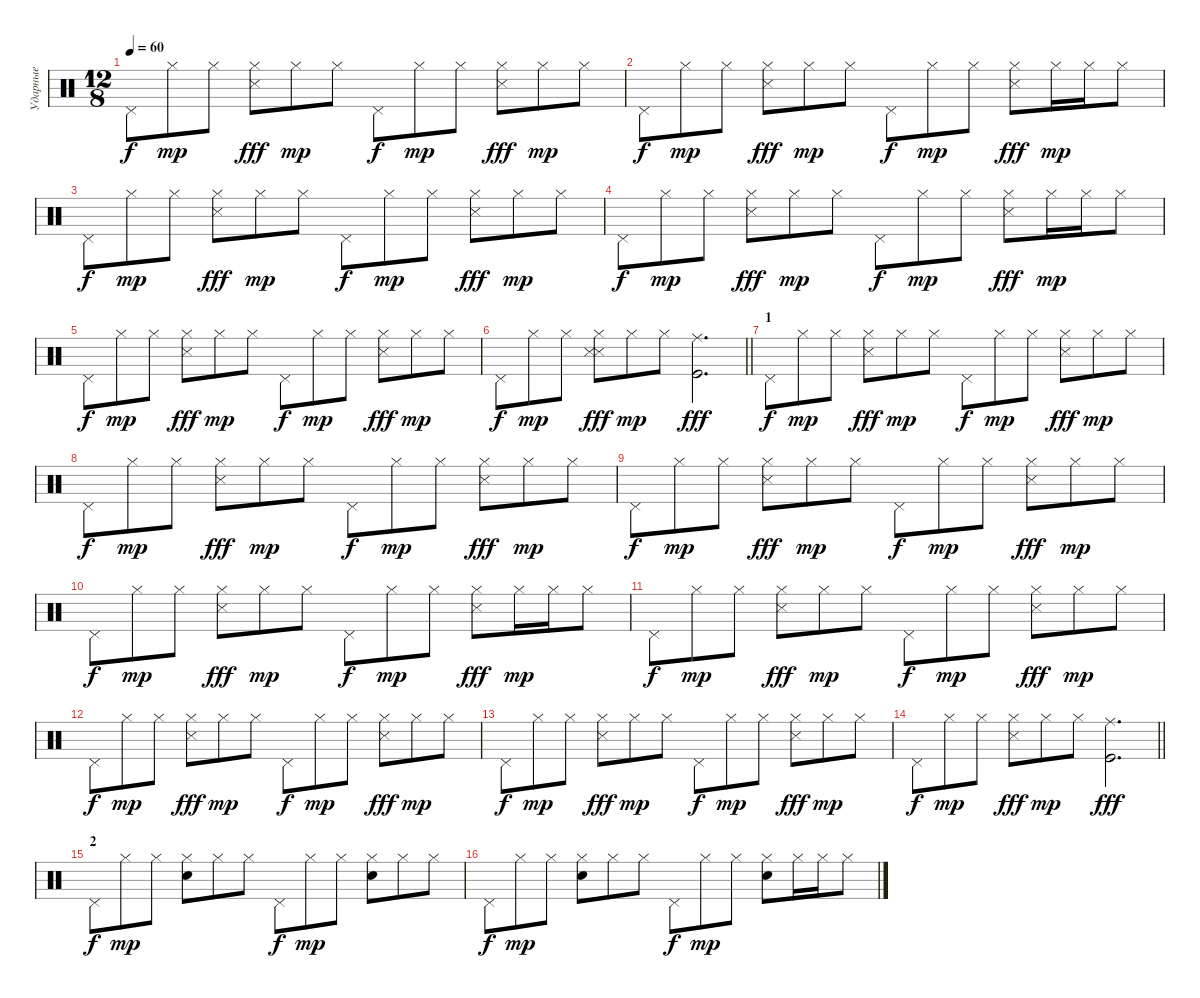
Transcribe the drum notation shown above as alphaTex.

\track ("Ударные" "Ударные") {instrument percussion}
\staff {score}
\articulation defaults
\ts (12 8)
\tempo 60
\clef neutral
\ks c "Pedal Hi-Hat (hit)".8{dy f} "Hi-Hat (closed)".8{dy mp} "Hi-Hat (closed)".8
("Hi-Hat (closed)" "Snare (side stick) 3").8{dy fff} "Hi-Hat (closed)".8{dy mp} "Hi-Hat (closed)".8 "Pedal Hi-Hat (hit)".8{dy f} "Hi-Hat (closed)".8{dy mp} "Hi-Hat (closed)".8 ("Hi-Hat (closed)" "Snare (side stick) 3").8{dy fff} "Hi-Hat (closed)".8{dy mp} "Hi-Hat (closed)".8 |
"Pedal Hi-Hat (hit)".8{dy f} "Hi-Hat (closed)".8{dy mp} "Hi-Hat (closed)".8 ("Hi-Hat (closed)" "Snare (side stick) 3").8{dy fff} "Hi-Hat (closed)".8{dy mp} "Hi-Hat (closed)".8 "Pedal Hi-Hat (hit)".8{dy f} "Hi-Hat (closed)".8{dy mp} "Hi-Hat (closed)".8 ("Hi-Hat (closed)" "Snare (side stick) 3").8{dy fff} "Hi-Hat (closed)".16{dy mp} "Hi-Hat (closed)".16 "Hi-Hat (closed)".8 |
"Pedal Hi-Hat (hit)".8{dy f} "Hi-Hat (closed)".8{dy mp} "Hi-Hat (closed)".8 ("Hi-Hat (closed)" "Snare (side stick) 3").8{dy fff} "Hi-Hat (closed)".8{dy mp} "Hi-Hat (closed)".8 "Pedal Hi-Hat (hit)".8{dy f} "Hi-Hat (closed)".8{dy mp} "Hi-Hat (closed)".8 ("Hi-Hat (closed)" "Snare (side stick) 3").8{dy fff} "Hi-Hat (closed)".8{dy mp} "Hi-Hat (closed)".8 |
"Pedal Hi-Hat (hit)".8{dy f} "Hi-Hat (closed)".8{dy mp} "Hi-Hat (closed)".8 ("Hi-Hat (closed)" "Snare (side stick) 3").8{dy fff} "Hi-Hat (closed)".8{dy mp} "Hi-Hat (closed)".8 "Pedal Hi-Hat (hit)".8{dy f} "Hi-Hat (closed)".8{dy mp} "Hi-Hat (closed)".8 ("Hi-Hat (closed)" "Snare (side stick) 3").8{dy fff} "Hi-Hat (closed)".16{dy mp} "Hi-Hat (closed)".16 "Hi-Hat (closed)".8 |
"Pedal Hi-Hat (hit)".8{dy f} "Hi-Hat (closed)".8{dy mp} "Hi-Hat (closed)".8 ("Hi-Hat (closed)" "Snare (side stick) 3").8{dy fff} "Hi-Hat (closed)".8{dy mp} "Hi-Hat (closed)".8 "Pedal Hi-Hat (hit)".8{dy f} "Hi-Hat (closed)".8{dy mp} "Hi-Hat (closed)".8 ("Hi-Hat (closed)" "Snare (side stick) 3").8{dy fff} "Hi-Hat (closed)".8{dy mp} "Hi-Hat (closed)".8 |
\barLineRight lightlight "Pedal Hi-Hat (hit)".8{dy f} "Hi-Hat (closed)".8{dy mp} "Hi-Hat (closed)".8
("Hi-Hat (closed)" "Snare (side stick) 3" "Metronome (hit)").8{dy fff} "Hi-Hat (closed)".8{dy mp} "Hi-Hat (closed)".8 ("Ride (middle)" "Kick (hit)").2{d dy fff} |
\section ("" "1")
"Pedal Hi-Hat (hit)".8{dy f} "Hi-Hat (closed)".8{dy mp} "Hi-Hat (closed)".8 ("Hi-Hat (closed)" "Snare (side stick) 3").8{dy fff} "Hi-Hat (closed)".8{dy mp} "Hi-Hat (closed)".8 "Pedal Hi-Hat (hit)".8{dy f} "Hi-Hat (closed)".8{dy mp} "Hi-Hat (closed)".8 ("Hi-Hat (closed)" "Snare (side stick) 3").8{dy fff} "Hi-Hat (closed)".8{dy mp} "Hi-Hat (closed)".8 |
"Pedal Hi-Hat (hit)".8{dy f} "Hi-Hat (closed)".8{dy mp} "Hi-Hat (closed)".8 ("Hi-Hat (closed)" "Snare (side stick) 3").8{dy fff} "Hi-Hat (closed)".8{dy mp} "Hi-Hat (closed)".8 "Pedal Hi-Hat (hit)".8{dy f} "Hi-Hat (closed)".8{dy mp} "Hi-Hat (closed)".8 ("Hi-Hat (closed)" "Snare (side stick) 3").8{dy fff} "Hi-Hat (closed)".8{dy mp} "Hi-Hat (closed)".8 |
"Pedal Hi-Hat (hit)".8{dy f} "Hi-Hat (closed)".8{dy mp} "Hi-Hat (closed)".8 ("Hi-Hat (closed)" "Snare (side stick) 3").8{dy fff} "Hi-Hat (closed)".8{dy mp} "Hi-Hat (closed)".8 "Pedal Hi-Hat (hit)".8{dy f} "Hi-Hat (closed)".8{dy mp} "Hi-Hat (closed)".8 ("Hi-Hat (closed)" "Snare (side stick) 3").8{dy fff} "Hi-Hat (closed)".8{dy mp} "Hi-Hat (closed)".8 |
"Pedal Hi-Hat (hit)".8{dy f} "Hi-Hat (closed)".8{dy mp} "Hi-Hat (closed)".8 ("Hi-Hat (closed)" "Snare (side stick) 3").8{dy fff} "Hi-Hat (closed)".8{dy mp} "Hi-Hat (closed)".8 "Pedal Hi-Hat (hit)".8{dy f} "Hi-Hat (closed)".8{dy mp} "Hi-Hat (closed)".8 ("Hi-Hat (closed)" "Snare (side stick) 3").8{dy fff} "Hi-Hat (closed)".16{dy mp} "Hi-Hat (closed)".16 "Hi-Hat (closed)".8 |
"Pedal Hi-Hat (hit)".8{dy f} "Hi-Hat (closed)".8{dy mp} "Hi-Hat (closed)".8 ("Hi-Hat (closed)" "Snare (side stick) 3").8{dy fff} "Hi-Hat (closed)".8{dy mp} "Hi-Hat (closed)".8 "Pedal Hi-Hat (hit)".8{dy f} "Hi-Hat (closed)".8{dy mp} "Hi-Hat (closed)".8 ("Hi-Hat (closed)" "Snare (side stick) 3").8{dy fff} "Hi-Hat (closed)".8{dy mp} "Hi-Hat (closed)".8 |
"Pedal Hi-Hat (hit)".8{dy f} "Hi-Hat (closed)".8{dy mp} "Hi-Hat (closed)".8 ("Hi-Hat (closed)" "Snare (side stick) 3").8{dy fff} "Hi-Hat (closed)".8{dy mp} "Hi-Hat (closed)".8 "Pedal Hi-Hat (hit)".8{dy f} "Hi-Hat (closed)".8{dy mp} "Hi-Hat (closed)".8 ("Hi-Hat (closed)" "Snare (side stick) 3").8{dy fff} "Hi-Hat (closed)".8{dy mp} "Hi-Hat (closed)".8 |
"Pedal Hi-Hat (hit)".8{dy f} "Hi-Hat (closed)".8{dy mp} "Hi-Hat (closed)".8 ("Hi-Hat (closed)" "Snare (side stick) 3").8{dy fff} "Hi-Hat (closed)".8{dy mp} "Hi-Hat (closed)".8 "Pedal Hi-Hat (hit)".8{dy f} "Hi-Hat (closed)".8{dy mp} "Hi-Hat (closed)".8 ("Hi-Hat (closed)" "Snare (side stick) 3").8{dy fff} "Hi-Hat (closed)".8{dy mp} "Hi-Hat (closed)".8 |
\barLineRight lightlight "Pedal Hi-Hat (hit)".8{dy f} "Hi-Hat (closed)".8{dy mp} "Hi-Hat (closed)".8
("Hi-Hat (closed)" "Snare (side stick) 3").8{dy fff} "Hi-Hat (closed)".8{dy mp} "Hi-Hat (closed)".8 ("Kick (hit)" "Ride (middle)").2{d dy fff} |
\section ("" "2")
"Pedal Hi-Hat (hit)".8{dy f} "Hi-Hat (closed)".8{dy mp} "Hi-Hat (closed)".8 ("Hi-Hat (closed)" "Electric Snare (hit)").8 "Hi-Hat (closed)".8 "Hi-Hat (closed)".8 "Pedal Hi-Hat (hit)".8{dy f} "Hi-Hat (closed)".8{dy mp} "Hi-Hat (closed)".8 ("Hi-Hat (closed)" "Electric Snare (hit)").8 "Hi-Hat (closed)".8 "Hi-Hat (closed)".8 |
"Pedal Hi-Hat (hit)".8{dy f} "Hi-Hat (closed)".8{dy mp} "Hi-Hat (closed)".8 ("Hi-Hat (closed)" "Electric Snare (hit)").8 "Hi-Hat (closed)".8 "Hi-Hat (closed)".8 "Pedal Hi-Hat (hit)".8{dy f} "Hi-Hat (closed)".8{dy mp} "Hi-Hat (closed)".8 ("Hi-Hat (closed)" "Electric Snare (hit)").8 "Hi-Hat (closed)".16 "Hi-Hat (closed)".16 "Hi-Hat (closed)".8
